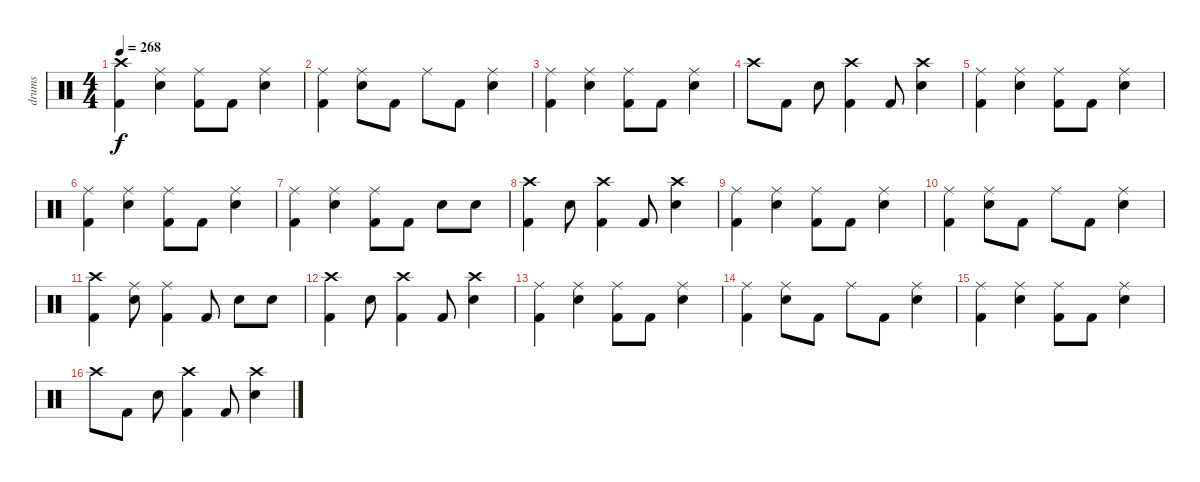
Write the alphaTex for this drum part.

\track ("drums" "drums") {instrument percussion}
\staff {score}
\articulation defaults
\ts (4 4)
\tempo 268
\clef neutral
\ks c
("Crash high (hit)" "Kick (hit) 2").4{dy f} ("Ride (middle)" "Electric Snare (hit)").4 ("Ride (middle)" "Kick (hit) 2").8 "Kick (hit) 2".8 ("Ride (middle)" "Electric Snare (hit)").4 |
("Ride (middle)" "Kick (hit) 2").4 ("Ride (middle)" "Electric Snare (hit)").8 "Kick (hit) 2".8 "Ride (middle)".8 "Kick (hit) 2".8 ("Ride (middle)" "Electric Snare (hit)").4 |
("Ride (middle)" "Kick (hit) 2").4 ("Ride (middle)" "Electric Snare (hit)").4 ("Ride (middle)" "Kick (hit) 2").8 "Kick (hit) 2".8 ("Ride (middle)" "Electric Snare (hit)").4 |
"Crash high (hit)".8 "Kick (hit) 2".8 "Electric Snare (hit)".8 ("Crash high (hit)" "Kick (hit) 2").4 "Kick (hit) 2".8 ("Crash high (hit)" "Electric Snare (hit)").4 |
("Ride (middle)" "Kick (hit) 2").4 ("Ride (middle)" "Electric Snare (hit)").4 ("Ride (middle)" "Kick (hit) 2").8 "Kick (hit) 2".8 ("Ride (middle)" "Electric Snare (hit)").4 |
("Ride (middle)" "Kick (hit) 2").4 ("Ride (middle)" "Electric Snare (hit)").4 ("Ride (middle)" "Kick (hit) 2").8 "Kick (hit) 2".8 ("Ride (middle)" "Electric Snare (hit)").4 |
("Ride (middle)" "Kick (hit) 2").4 ("Ride (middle)" "Electric Snare (hit)").4 ("Ride (middle)" "Kick (hit) 2").8 "Kick (hit) 2".8 "Electric Snare (hit)".8 "Electric Snare (hit)".8 |
("Crash high (hit)" "Kick (hit) 2").4 "Electric Snare (hit)".8 ("Crash high (hit)" "Kick (hit) 2").4 "Kick (hit) 2".8 ("Crash high (hit)" "Electric Snare (hit)").4 |
("Ride (middle)" "Kick (hit) 2").4 ("Ride (middle)" "Electric Snare (hit)").4 ("Ride (middle)" "Kick (hit) 2").8 "Kick (hit) 2".8 ("Ride (middle)" "Electric Snare (hit)").4 |
("Ride (middle)" "Kick (hit) 2").4 ("Ride (middle)" "Electric Snare (hit)").8 "Kick (hit) 2".8 "Ride (middle)".8 "Kick (hit) 2".8 ("Ride (middle)" "Electric Snare (hit)").4 |
("Crash high (hit)" "Kick (hit) 2").4 ("Ride (middle)" "Electric Snare (hit)").8 ("Ride (middle)" "Kick (hit) 2").4 "Kick (hit) 2".8 "Electric Snare (hit)".8 "Electric Snare (hit)".8 |
("Crash high (hit)" "Kick (hit) 2").4 "Electric Snare (hit)".8 ("Crash high (hit)" "Kick (hit) 2").4 "Kick (hit) 2".8 ("Crash high (hit)" "Electric Snare (hit)").4 |
("Ride (middle)" "Kick (hit) 2").4 ("Ride (middle)" "Electric Snare (hit)").4 ("Ride (middle)" "Kick (hit) 2").8 "Kick (hit) 2".8 ("Ride (middle)" "Electric Snare (hit)").4 |
("Ride (middle)" "Kick (hit) 2").4 ("Ride (middle)" "Electric Snare (hit)").8 "Kick (hit) 2".8 "Ride (middle)".8 "Kick (hit) 2".8 ("Ride (middle)" "Electric Snare (hit)").4 |
("Ride (middle)" "Kick (hit) 2").4 ("Ride (middle)" "Electric Snare (hit)").4 ("Ride (middle)" "Kick (hit) 2").8 "Kick (hit) 2".8 ("Ride (middle)" "Electric Snare (hit)").4 |
"Crash high (hit)".8 "Kick (hit) 2".8 "Electric Snare (hit)".8 ("Crash high (hit)" "Kick (hit) 2").4 "Kick (hit) 2".8 ("Crash high (hit)" "Electric Snare (hit)").4
